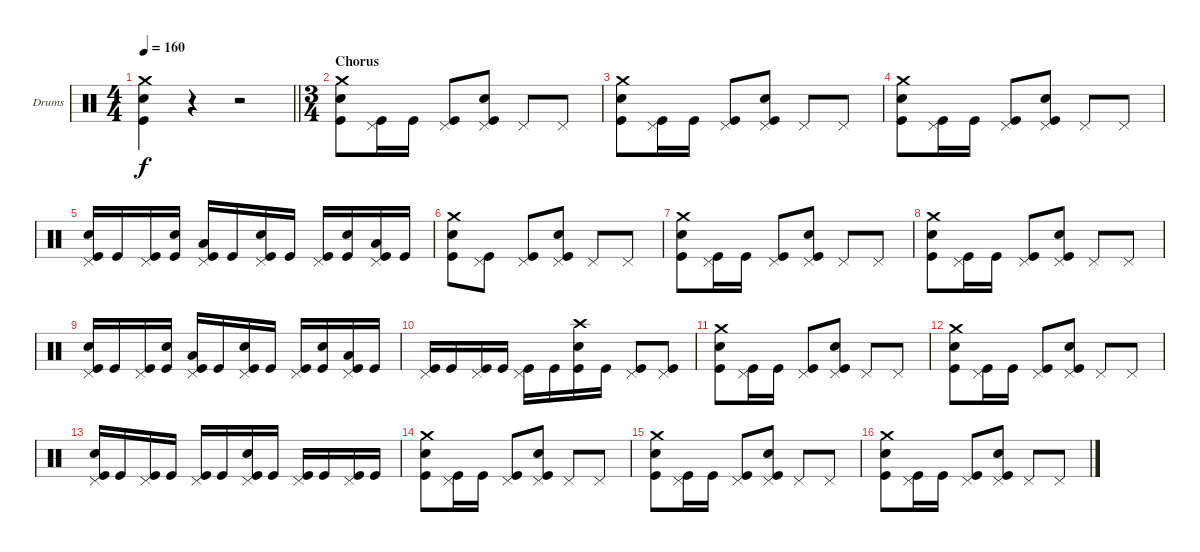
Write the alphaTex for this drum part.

\bracketExtendMode groupsimilarinstruments
\firstSystemTrackNameOrientation horizontal
\otherSystemsTrackNameOrientation horizontal
\track ("Drumkit" "Drums") {instrument percussion}
\staff {score}
\articulation defaults
\ts (4 4)
\tempo 160
\clef neutral
\barLineRight lightlight
\ks c
("Crash medium (hit)" "Snare (hit) 2" "Kick (hit)").4{dy f} r.4 r.2 |
\ts (3 4)
\beaming (8 2 2 2)
\section ("" "Chorus")
("Crash medium (hit)" "Snare (hit) 2" "Kick (hit)").8 ("Pedal Hi-Hat (hit)" "Kick (hit)").16 "Kick (hit)".16 ("Pedal Hi-Hat (hit)" "Kick (hit)").8 ("Pedal Hi-Hat (hit)" "Kick (hit)" "Snare (hit) 2").8 "Pedal Hi-Hat (hit)".8 "Pedal Hi-Hat (hit)".8 |
("Crash medium (hit)" "Snare (hit) 2" "Kick (hit)").8 ("Pedal Hi-Hat (hit)" "Kick (hit)").16 "Kick (hit)".16 ("Pedal Hi-Hat (hit)" "Kick (hit)").8 ("Pedal Hi-Hat (hit)" "Kick (hit)" "Snare (hit) 2").8 "Pedal Hi-Hat (hit)".8 "Pedal Hi-Hat (hit)".8 |
("Crash medium (hit)" "Snare (hit) 2" "Kick (hit)").8 ("Pedal Hi-Hat (hit)" "Kick (hit)").16 "Kick (hit)".16 ("Pedal Hi-Hat (hit)" "Kick (hit)").8 ("Pedal Hi-Hat (hit)" "Kick (hit)" "Snare (hit) 2").8 "Pedal Hi-Hat (hit)".8 "Pedal Hi-Hat (hit)".8 |
("Pedal Hi-Hat (hit)" "Snare (hit) 2" "Kick (hit)").16 "Kick (hit)".16 ("Pedal Hi-Hat (hit)" "Kick (hit)").16 ("Snare (hit) 2" "Kick (hit)").16 ("Pedal Hi-Hat (hit)" "Low Tom (hit)" "Kick (hit)").16 "Kick (hit)".16 ("Pedal Hi-Hat (hit)" "Snare (hit) 2" "Kick (hit)").16 "Kick (hit)".16 ("Pedal Hi-Hat (hit)" "Kick (hit)").16 ("Snare (hit) 2" "Kick (hit)").16 ("Pedal Hi-Hat (hit)" "Low Tom (hit)" "Kick (hit)").16 "Kick (hit)".16 |
("Crash medium (hit)" "Snare (hit) 2" "Kick (hit)").8 ("Pedal Hi-Hat (hit)" "Kick (hit)").8 ("Pedal Hi-Hat (hit)" "Kick (hit)").8 ("Pedal Hi-Hat (hit)" "Kick (hit)" "Snare (hit) 2").8 "Pedal Hi-Hat (hit)".8 "Pedal Hi-Hat (hit)".8 |
("Crash medium (hit)" "Snare (hit) 2" "Kick (hit)").8 ("Pedal Hi-Hat (hit)" "Kick (hit)").16 "Kick (hit)".16 ("Pedal Hi-Hat (hit)" "Kick (hit)").8 ("Pedal Hi-Hat (hit)" "Kick (hit)" "Snare (hit) 2").8 "Pedal Hi-Hat (hit)".8 "Pedal Hi-Hat (hit)".8 |
("Crash medium (hit)" "Snare (hit) 2" "Kick (hit)").8 ("Pedal Hi-Hat (hit)" "Kick (hit)").16 "Kick (hit)".16 ("Pedal Hi-Hat (hit)" "Kick (hit)").8 ("Pedal Hi-Hat (hit)" "Kick (hit)" "Snare (hit) 2").8 "Pedal Hi-Hat (hit)".8 "Pedal Hi-Hat (hit)".8 |
("Pedal Hi-Hat (hit)" "Snare (hit) 2" "Kick (hit)").16 "Kick (hit)".16 ("Pedal Hi-Hat (hit)" "Kick (hit)").16 ("Snare (hit) 2" "Kick (hit)").16 ("Pedal Hi-Hat (hit)" "Low Tom (hit)" "Kick (hit)").16 "Kick (hit)".16 ("Pedal Hi-Hat (hit)" "Snare (hit) 2" "Kick (hit)").16 "Kick (hit)".16 ("Pedal Hi-Hat (hit)" "Kick (hit)").16 ("Snare (hit) 2" "Kick (hit)").16 ("Pedal Hi-Hat (hit)" "Low Tom (hit)" "Kick (hit)").16 "Kick (hit)".16 |
("Pedal Hi-Hat (hit)" "Kick (hit)").16 "Kick (hit)".16 ("Pedal Hi-Hat (hit)" "Kick (hit)").16 "Kick (hit)".16 ("Pedal Hi-Hat (hit)" "Kick (hit)").16 "Kick (hit)".16 ("Crash high (hit)" "Snare (hit) 2" "Kick (hit)").16 "Kick (hit)".16 ("Pedal Hi-Hat (hit)" "Kick (hit)").8 ("Pedal Hi-Hat (hit)" "Kick (hit)").8 |
("Crash medium (hit)" "Snare (hit) 2" "Kick (hit)").8 ("Pedal Hi-Hat (hit)" "Kick (hit)").16 "Kick (hit)".16 ("Pedal Hi-Hat (hit)" "Kick (hit)").8 ("Pedal Hi-Hat (hit)" "Kick (hit)" "Snare (hit) 2").8 "Pedal Hi-Hat (hit)".8 "Pedal Hi-Hat (hit)".8 |
("Crash medium (hit)" "Snare (hit) 2" "Kick (hit)").8 ("Pedal Hi-Hat (hit)" "Kick (hit)").16 "Kick (hit)".16 ("Pedal Hi-Hat (hit)" "Kick (hit)").8 ("Pedal Hi-Hat (hit)" "Kick (hit)" "Snare (hit) 2").8 "Pedal Hi-Hat (hit)".8 "Pedal Hi-Hat (hit)".8 |
("Pedal Hi-Hat (hit)" "Snare (hit) 2" "Kick (hit)").16 "Kick (hit)".16 ("Pedal Hi-Hat (hit)" "Kick (hit)").16 "Kick (hit)".16 ("Pedal Hi-Hat (hit)" "Kick (hit)").16 "Kick (hit)".16 ("Pedal Hi-Hat (hit)" "Snare (hit) 2" "Kick (hit)").16 "Kick (hit)".16 ("Pedal Hi-Hat (hit)" "Kick (hit)").16 "Kick (hit)".16 ("Pedal Hi-Hat (hit)" "Kick (hit)").16 "Kick (hit)".16 |
("Crash medium (hit)" "Snare (hit) 2" "Kick (hit)").8 ("Pedal Hi-Hat (hit)" "Kick (hit)").16 "Kick (hit)".16 ("Pedal Hi-Hat (hit)" "Kick (hit)").8 ("Pedal Hi-Hat (hit)" "Kick (hit)" "Snare (hit) 2").8 "Pedal Hi-Hat (hit)".8 "Pedal Hi-Hat (hit)".8 |
("Crash medium (hit)" "Snare (hit) 2" "Kick (hit)").8 ("Pedal Hi-Hat (hit)" "Kick (hit)").16 "Kick (hit)".16 ("Pedal Hi-Hat (hit)" "Kick (hit)").8 ("Pedal Hi-Hat (hit)" "Kick (hit)" "Snare (hit) 2").8 "Pedal Hi-Hat (hit)".8 "Pedal Hi-Hat (hit)".8 |
("Crash medium (hit)" "Snare (hit) 2" "Kick (hit)").8 ("Pedal Hi-Hat (hit)" "Kick (hit)").16 "Kick (hit)".16 ("Pedal Hi-Hat (hit)" "Kick (hit)").8 ("Pedal Hi-Hat (hit)" "Kick (hit)" "Snare (hit) 2").8 "Pedal Hi-Hat (hit)".8 "Pedal Hi-Hat (hit)".8
